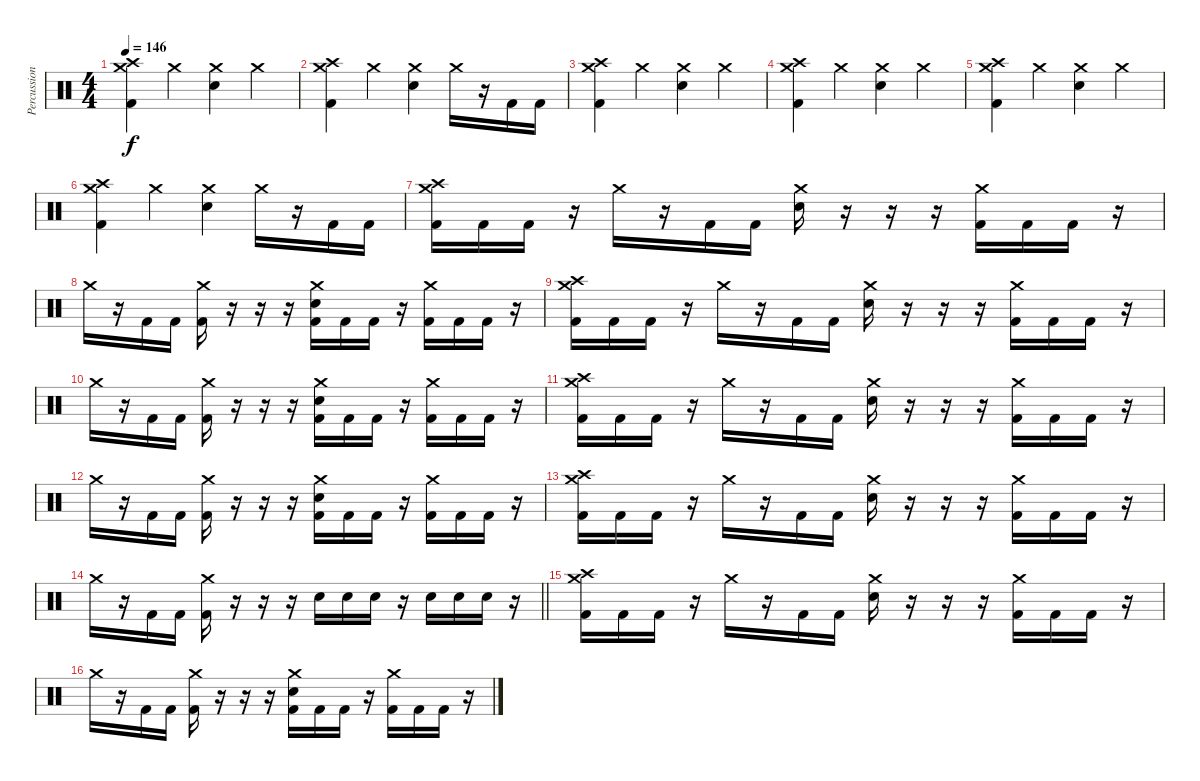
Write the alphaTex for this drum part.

\track ("Percussion" "Percussion") {instrument percussion}
\staff {score}
\articulation defaults
\ts (4 4)
\tempo 146
\clef neutral
\ks c
("Crash high (hit)" "Crash medium (hit)" "Kick (hit) 2").4{dy f} "Crash medium (hit)".4 ("Crash medium (hit)" "Snare (hit) 2").4 "Crash medium (hit)".4 |
("Crash high (hit)" "Crash medium (hit)" "Kick (hit) 2").4 "Crash medium (hit)".4 ("Crash medium (hit)" "Snare (hit) 2").4 "Crash medium (hit)".16 r.16 "Kick (hit) 2".16 "Kick (hit) 2".16 |
("Crash high (hit)" "Crash medium (hit)" "Kick (hit) 2").4 "Crash medium (hit)".4 ("Crash medium (hit)" "Snare (hit) 2").4 "Crash medium (hit)".4 |
("Crash high (hit)" "Crash medium (hit)" "Kick (hit) 2").4 "Crash medium (hit)".4 ("Crash medium (hit)" "Snare (hit) 2").4 "Crash medium (hit)".4 |
("Crash high (hit)" "Crash medium (hit)" "Kick (hit) 2").4 "Crash medium (hit)".4 ("Crash medium (hit)" "Snare (hit) 2").4 "Crash medium (hit)".4 |
("Crash high (hit)" "Crash medium (hit)" "Kick (hit) 2").4 "Crash medium (hit)".4 ("Crash medium (hit)" "Snare (hit) 2").4 "Crash medium (hit)".16 r.16 "Kick (hit) 2".16 "Kick (hit) 2".16 |
("Crash high (hit)" "Crash medium (hit)" "Kick (hit) 2").16 "Kick (hit) 2".16 "Kick (hit) 2".16 r.16 "Crash medium (hit)".16 r.16 "Kick (hit) 2".16 "Kick (hit) 2".16 ("Crash medium (hit)" "Snare (hit) 2").16 r.16 r.16 r.16 ("Crash medium (hit)" "Kick (hit) 2").16 "Kick (hit) 2".16 "Kick (hit) 2".16 r.16 |
"Crash medium (hit)".16 r.16 "Kick (hit) 2".16 "Kick (hit) 2".16 ("Crash medium (hit)" "Kick (hit) 2").16 r.16 r.16 r.16 ("Crash medium (hit)" "Snare (hit) 2" "Kick (hit) 2").16 "Kick (hit) 2".16 "Kick (hit) 2".16 r.16 ("Crash medium (hit)" "Kick (hit) 2").16 "Kick (hit) 2".16 "Kick (hit) 2".16 r.16 |
("Crash high (hit)" "Crash medium (hit)" "Kick (hit) 2").16 "Kick (hit) 2".16 "Kick (hit) 2".16 r.16 "Crash medium (hit)".16 r.16 "Kick (hit) 2".16 "Kick (hit) 2".16 ("Crash medium (hit)" "Snare (hit) 2").16 r.16 r.16 r.16 ("Crash medium (hit)" "Kick (hit) 2").16 "Kick (hit) 2".16 "Kick (hit) 2".16 r.16 |
"Crash medium (hit)".16 r.16 "Kick (hit) 2".16 "Kick (hit) 2".16 ("Crash medium (hit)" "Kick (hit) 2").16 r.16 r.16 r.16 ("Crash medium (hit)" "Snare (hit) 2" "Kick (hit) 2").16 "Kick (hit) 2".16 "Kick (hit) 2".16 r.16 ("Crash medium (hit)" "Kick (hit) 2").16 "Kick (hit) 2".16 "Kick (hit) 2".16 r.16 |
("Crash high (hit)" "Crash medium (hit)" "Kick (hit) 2").16 "Kick (hit) 2".16 "Kick (hit) 2".16 r.16 "Crash medium (hit)".16 r.16 "Kick (hit) 2".16 "Kick (hit) 2".16 ("Crash medium (hit)" "Snare (hit) 2").16 r.16 r.16 r.16 ("Crash medium (hit)" "Kick (hit) 2").16 "Kick (hit) 2".16 "Kick (hit) 2".16 r.16 |
"Crash medium (hit)".16 r.16 "Kick (hit) 2".16 "Kick (hit) 2".16 ("Crash medium (hit)" "Kick (hit) 2").16 r.16 r.16 r.16 ("Crash medium (hit)" "Snare (hit) 2" "Kick (hit) 2").16 "Kick (hit) 2".16 "Kick (hit) 2".16 r.16 ("Crash medium (hit)" "Kick (hit) 2").16 "Kick (hit) 2".16 "Kick (hit) 2".16 r.16 |
("Crash high (hit)" "Crash medium (hit)" "Kick (hit) 2").16 "Kick (hit) 2".16 "Kick (hit) 2".16 r.16 "Crash medium (hit)".16 r.16 "Kick (hit) 2".16 "Kick (hit) 2".16 ("Crash medium (hit)" "Snare (hit) 2").16 r.16 r.16 r.16 ("Crash medium (hit)" "Kick (hit) 2").16 "Kick (hit) 2".16 "Kick (hit) 2".16 r.16 |
\barLineRight lightlight "Crash medium (hit)".16
r.16 "Kick (hit) 2".16 "Kick (hit) 2".16 ("Crash medium (hit)" "Kick (hit) 2").16 r.16 r.16 r.16 "Snare (hit) 2".16 "Snare (hit) 2".16 "Snare (hit) 2".16 r.16 "Snare (hit) 2".16 "Snare (hit) 2".16 "Snare (hit) 2".16 r.16 |
\section ("" "")
("Crash high (hit)" "Crash medium (hit)" "Kick (hit) 2").16 "Kick (hit) 2".16 "Kick (hit) 2".16 r.16 "Crash medium (hit)".16 r.16 "Kick (hit) 2".16 "Kick (hit) 2".16 ("Crash medium (hit)" "Snare (hit) 2").16 r.16 r.16 r.16 ("Crash medium (hit)" "Kick (hit) 2").16 "Kick (hit) 2".16 "Kick (hit) 2".16 r.16 |
"Crash medium (hit)".16 r.16 "Kick (hit) 2".16 "Kick (hit) 2".16 ("Crash medium (hit)" "Kick (hit) 2").16 r.16 r.16 r.16 ("Crash medium (hit)" "Snare (hit) 2" "Kick (hit) 2").16 "Kick (hit) 2".16 "Kick (hit) 2".16 r.16 ("Crash medium (hit)" "Kick (hit) 2").16 "Kick (hit) 2".16 "Kick (hit) 2".16 r.16
